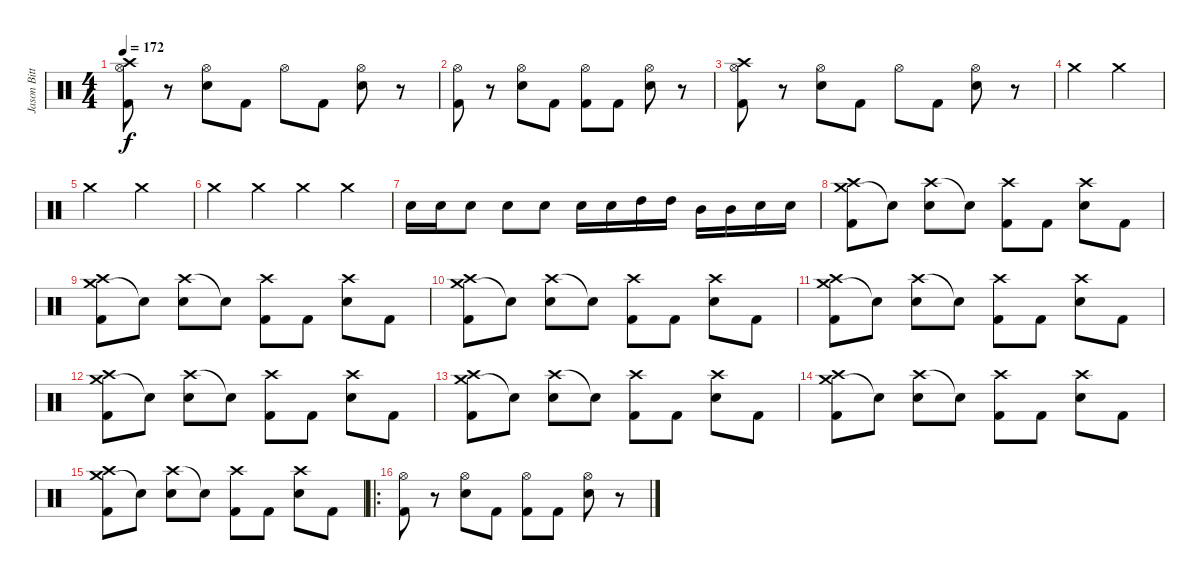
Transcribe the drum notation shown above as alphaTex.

\track ("Jason Bittner" "Jason Bitt") {instrument percussion}
\staff {score}
\articulation defaults
\ts (4 4)
\tempo 172
\clef neutral
\ks c
("Crash high (hit)" "Hi-Hat (open)" "Kick (hit) 2").8{dy f} r.8 ("Hi-Hat (open)" "Electric Snare (hit)").8 "Kick (hit) 2".8 "Hi-Hat (open)".8 "Kick (hit) 2".8 ("Hi-Hat (open)" "Electric Snare (hit)").8 r.8 |
("Hi-Hat (open)" "Kick (hit) 2").8 r.8 ("Hi-Hat (open)" "Electric Snare (hit)").8 "Kick (hit) 2".8 ("Hi-Hat (open)" "Kick (hit) 2").8 "Kick (hit) 2".8 ("Hi-Hat (open)" "Electric Snare (hit)").8 r.8 |
("Crash high (hit)" "Hi-Hat (open)" "Kick (hit) 2").8 r.8 ("Hi-Hat (open)" "Electric Snare (hit)").8 "Kick (hit) 2".8 "Hi-Hat (open)".8 "Kick (hit) 2".8 ("Hi-Hat (open)" "Electric Snare (hit)").8 r.8 |
"Crash medium (hit)".2 "Crash medium (hit)".2 |
"Crash medium (hit)".2 "Crash medium (hit)".2 |
"Crash medium (hit)".4 "Crash medium (hit)".4 "Crash medium (hit)".4 "Crash medium (hit)".4 |
"Electric Snare (hit)".16 "Electric Snare (hit)".16 "Electric Snare (hit)".8 "Electric Snare (hit)".8 "Electric Snare (hit)".8 "Electric Snare (hit)".16 "Electric Snare (hit)".16 "High Tom (hit)".16 "High Tom (hit)".16 "Mid Tom (hit)".16 "Mid Tom (hit)".16 "Electric Snare (hit)".16 "Electric Snare (hit)".16 |
("Crash medium (hit)" "Crash high (hit)" "Kick (hit) 2").8 "Snare (hit)"{t}.8 ("Crash high (hit)" "Electric Snare (hit)").8 "Snare (hit)"{t}.8 ("Crash high (hit)" "Kick (hit) 2").8 "Kick (hit) 2".8 ("Crash high (hit)" "Electric Snare (hit)").8 "Kick (hit) 2".8 |
("Crash medium (hit)" "Crash high (hit)" "Kick (hit) 2").8 "Snare (hit)"{t}.8 ("Crash high (hit)" "Electric Snare (hit)").8 "Snare (hit)"{t}.8 ("Crash high (hit)" "Kick (hit) 2").8 "Kick (hit) 2".8 ("Crash high (hit)" "Electric Snare (hit)").8 "Kick (hit) 2".8 |
("Crash medium (hit)" "Crash high (hit)" "Kick (hit) 2").8 "Snare (hit)"{t}.8 ("Crash high (hit)" "Electric Snare (hit)").8 "Snare (hit)"{t}.8 ("Crash high (hit)" "Kick (hit) 2").8 "Kick (hit) 2".8 ("Crash high (hit)" "Electric Snare (hit)").8 "Kick (hit) 2".8 |
("Crash medium (hit)" "Crash high (hit)" "Kick (hit) 2").8 "Snare (hit)"{t}.8 ("Crash high (hit)" "Electric Snare (hit)").8 "Snare (hit)"{t}.8 ("Crash high (hit)" "Kick (hit) 2").8 "Kick (hit) 2".8 ("Crash high (hit)" "Electric Snare (hit)").8 "Kick (hit) 2".8 |
("Crash medium (hit)" "Crash high (hit)" "Kick (hit) 2").8 "Snare (hit)"{t}.8 ("Crash high (hit)" "Electric Snare (hit)").8 "Snare (hit)"{t}.8 ("Crash high (hit)" "Kick (hit) 2").8 "Kick (hit) 2".8 ("Crash high (hit)" "Electric Snare (hit)").8 "Kick (hit) 2".8 |
("Crash medium (hit)" "Crash high (hit)" "Kick (hit) 2").8 "Snare (hit)"{t}.8 ("Crash high (hit)" "Electric Snare (hit)").8 "Snare (hit)"{t}.8 ("Crash high (hit)" "Kick (hit) 2").8 "Kick (hit) 2".8 ("Crash high (hit)" "Electric Snare (hit)").8 "Kick (hit) 2".8 |
("Crash medium (hit)" "Crash high (hit)" "Kick (hit) 2").8 "Snare (hit)"{t}.8 ("Crash high (hit)" "Electric Snare (hit)").8 "Snare (hit)"{t}.8 ("Crash high (hit)" "Kick (hit) 2").8 "Kick (hit) 2".8 ("Crash high (hit)" "Electric Snare (hit)").8 "Kick (hit) 2".8 |
("Crash medium (hit)" "Crash high (hit)" "Kick (hit) 2").8 "Snare (hit)"{t}.8 ("Crash high (hit)" "Electric Snare (hit)").8 "Snare (hit)"{t}.8 ("Crash high (hit)" "Kick (hit) 2").8 "Kick (hit) 2".8 ("Crash high (hit)" "Electric Snare (hit)").8 "Kick (hit) 2".8 |
\ro
("Hi-Hat (open)" "Kick (hit) 2").8 r.8 ("Hi-Hat (open)" "Electric Snare (hit)").8 "Kick (hit) 2".8 ("Hi-Hat (open)" "Kick (hit) 2").8 "Kick (hit) 2".8 ("Hi-Hat (open)" "Electric Snare (hit)").8 r.8
